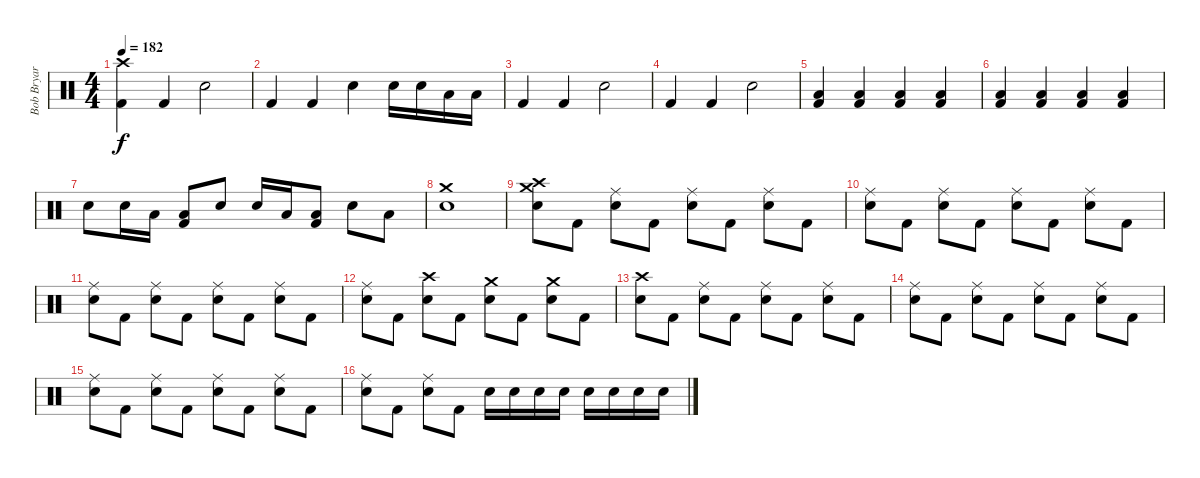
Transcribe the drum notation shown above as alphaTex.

\track ("Bob Bryar" "Bob Bryar") {instrument percussion}
\staff {score}
\articulation defaults
\ts (4 4)
\tempo 182
\clef neutral
\ks c
("Crash high (hit)" "Kick (hit) 2").4{dy f} "Kick (hit) 2".4 "Snare (hit) 2".2 |
"Kick (hit) 2".4 "Kick (hit) 2".4 "Snare (hit) 2".4 "Snare (hit) 2".16 "Snare (hit) 2".16 "Low Tom (hit)".16 "Low Tom (hit)".16 |
"Kick (hit) 2".4 "Kick (hit) 2".4 "Snare (hit) 2".2 |
"Kick (hit) 2".4 "Kick (hit) 2".4 "Snare (hit) 2".2 |
("Low Floor Tom (hit)" "Kick (hit) 2").4 ("Low Floor Tom (hit)" "Kick (hit) 2").4 ("Low Floor Tom (hit)" "Kick (hit) 2").4 ("Low Floor Tom (hit)" "Kick (hit) 2").4 |
("Low Floor Tom (hit)" "Kick (hit) 2").4 ("Low Floor Tom (hit)" "Kick (hit) 2").4 ("Low Floor Tom (hit)" "Kick (hit) 2").4 ("Low Floor Tom (hit)" "Kick (hit) 2").4 |
"Snare (hit) 2".8 "Snare (hit) 2".16 "Low Tom (hit)".16 ("Low Floor Tom (hit)" "Kick (hit) 2").8 "Snare (hit) 2".8 "Snare (hit) 2".16 "Low Tom (hit)".16 ("Low Floor Tom (hit)" "Kick (hit) 2").8 "Snare (hit) 2".8 "Low Tom (hit)".8 |
("Snare (hit) 2" "Crash medium (hit)").1 |
("Crash high (hit)" "Snare (hit) 2" "Crash medium (hit)").8 "Kick (hit) 2".8 ("Ride (middle)" "Snare (hit) 2").8 "Kick (hit) 2".8 ("Ride (middle)" "Snare (hit) 2").8 "Kick (hit) 2".8 ("Ride (middle)" "Snare (hit) 2").8 "Kick (hit) 2".8 |
("Ride (middle)" "Snare (hit) 2").8 "Kick (hit) 2".8 ("Ride (middle)" "Snare (hit) 2").8 "Kick (hit) 2".8 ("Ride (middle)" "Snare (hit) 2").8 "Kick (hit) 2".8 ("Ride (middle)" "Snare (hit) 2").8 "Kick (hit) 2".8 |
("Ride (middle)" "Snare (hit) 2").8 "Kick (hit) 2".8 ("Ride (middle)" "Snare (hit) 2").8 "Kick (hit) 2".8 ("Ride (middle)" "Snare (hit) 2").8 "Kick (hit) 2".8 ("Ride (middle)" "Snare (hit) 2").8 "Kick (hit) 2".8 |
("Ride (middle)" "Snare (hit) 2").8 "Kick (hit) 2".8 ("Snare (hit) 2" "Crash high (hit)").8 "Kick (hit) 2".8 ("Crash medium (hit)" "Snare (hit) 2").8 "Kick (hit) 2".8 ("Crash medium (hit)" "Snare (hit) 2").8 "Kick (hit) 2".8 |
("Crash high (hit)" "Snare (hit) 2").8 "Kick (hit) 2".8 ("Ride (middle)" "Snare (hit) 2").8 "Kick (hit) 2".8 ("Ride (middle)" "Snare (hit) 2").8 "Kick (hit) 2".8 ("Ride (middle)" "Snare (hit) 2").8 "Kick (hit) 2".8 |
("Ride (middle)" "Snare (hit) 2").8 "Kick (hit) 2".8 ("Ride (middle)" "Snare (hit) 2").8 "Kick (hit) 2".8 ("Ride (middle)" "Snare (hit) 2").8 "Kick (hit) 2".8 ("Ride (middle)" "Snare (hit) 2").8 "Kick (hit) 2".8 |
("Ride (middle)" "Snare (hit) 2").8 "Kick (hit) 2".8 ("Ride (middle)" "Snare (hit) 2").8 "Kick (hit) 2".8 ("Ride (middle)" "Snare (hit) 2").8 "Kick (hit) 2".8 ("Ride (middle)" "Snare (hit) 2").8 "Kick (hit) 2".8 |
("Ride (middle)" "Snare (hit) 2").8 "Kick (hit) 2".8 ("Ride (middle)" "Snare (hit) 2").8 "Kick (hit) 2".8 "Snare (hit) 2".16 "Snare (hit) 2".16 "Snare (hit) 2".16 "Snare (hit) 2".16 "Snare (hit) 2".16 "Snare (hit) 2".16 "Snare (hit) 2".16 "Snare (hit) 2".16
